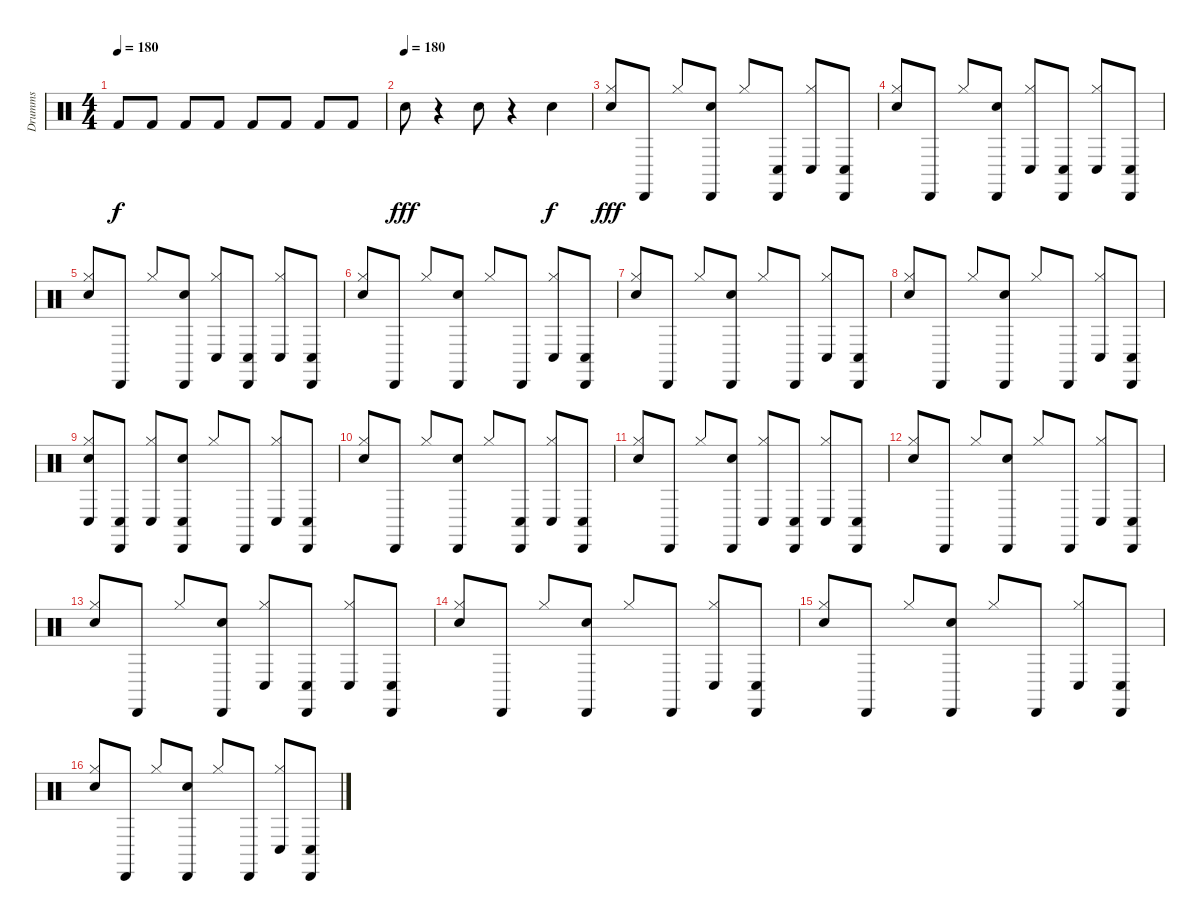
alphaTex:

\track ("Drumms" "Drumms") {instrument percussion}
\staff {score}
\articulation defaults
\ts (4 4)
\tempo 180
\clef neutral
\ks c "Kick (hit) 2".8{dy f} "Kick (hit) 2".8 "Kick (hit) 2".8 "Kick (hit) 2".8 "Kick (hit) 2".8 "Kick (hit) 2".8 "Kick (hit) 2".8 "Kick (hit) 2".8
|
\tempo (180)
"Metronome (bell)".8{dy fff} r.4 "Metronome (bell)".8 r.4 "Metronome (bell)".4{dy f} |
("Hi-Hat (closed)" "Metronome (bell)").8{dy fff} "Cabasa (hit)".8 "Hi-Hat (closed)".8 ("Cabasa (hit)" "Metronome (bell)").8 "Hi-Hat (closed)".8 ("Cabasa (hit)" "Conga low (hit)").8 ("Hi-Hat (closed)" "Conga low (hit)").8 ("Cabasa (hit)" "Conga low (hit)").8 |
("Hi-Hat (closed)" "Metronome (bell)").8 "Cabasa (hit)".8 "Hi-Hat (closed)".8 ("Cabasa (hit)" "Metronome (bell)").8 ("Hi-Hat (closed)" "Conga low (hit)").8 ("Cabasa (hit)" "Conga low (hit)").8 ("Hi-Hat (closed)" "Conga low (hit)").8 ("Cabasa (hit)" "Conga low (hit)").8 |
("Hi-Hat (closed)" "Metronome (bell)").8 "Cabasa (hit)".8 "Hi-Hat (closed)".8 ("Cabasa (hit)" "Metronome (bell)").8 ("Hi-Hat (closed)" "Conga low (hit)").8 ("Cabasa (hit)" "Conga low (hit)").8 ("Hi-Hat (closed)" "Conga low (hit)").8 ("Cabasa (hit)" "Conga low (hit)").8 |
("Hi-Hat (closed)" "Metronome (bell)").8 "Cabasa (hit)".8 "Hi-Hat (closed)".8 ("Cabasa (hit)" "Metronome (bell)").8 "Hi-Hat (closed)".8 "Cabasa (hit)".8 ("Hi-Hat (closed)" "Conga low (hit)").8 ("Cabasa (hit)" "Conga low (hit)").8 |
("Hi-Hat (closed)" "Metronome (bell)").8 "Cabasa (hit)".8 "Hi-Hat (closed)".8 ("Cabasa (hit)" "Metronome (bell)").8 "Hi-Hat (closed)".8 "Cabasa (hit)".8 ("Hi-Hat (closed)" "Conga low (hit)").8 ("Cabasa (hit)" "Conga low (hit)").8 |
("Hi-Hat (closed)" "Metronome (bell)").8 "Cabasa (hit)".8 "Hi-Hat (closed)".8 ("Cabasa (hit)" "Metronome (bell)").8 "Hi-Hat (closed)".8 "Cabasa (hit)".8 ("Hi-Hat (closed)" "Conga low (hit)").8 ("Cabasa (hit)" "Conga low (hit)").8 |
("Hi-Hat (closed)" "Metronome (bell)" "Conga low (hit)").8 ("Cabasa (hit)" "Conga low (hit)").8 ("Hi-Hat (closed)" "Conga low (hit)").8 ("Cabasa (hit)" "Metronome (bell)" "Conga low (hit)").8 "Hi-Hat (closed)".8 "Cabasa (hit)".8 ("Hi-Hat (closed)" "Conga low (hit)").8 ("Cabasa (hit)" "Conga low (hit)").8 |
("Hi-Hat (closed)" "Metronome (bell)").8 "Cabasa (hit)".8 "Hi-Hat (closed)".8 ("Cabasa (hit)" "Metronome (bell)").8 "Hi-Hat (closed)".8 ("Cabasa (hit)" "Conga low (hit)").8 ("Hi-Hat (closed)" "Conga low (hit)").8 ("Cabasa (hit)" "Conga low (hit)").8 |
("Hi-Hat (closed)" "Metronome (bell)").8 "Cabasa (hit)".8 "Hi-Hat (closed)".8 ("Cabasa (hit)" "Metronome (bell)").8 ("Hi-Hat (closed)" "Conga low (hit)").8 ("Cabasa (hit)" "Conga low (hit)").8 ("Hi-Hat (closed)" "Conga low (hit)").8 ("Cabasa (hit)" "Conga low (hit)").8 |
("Hi-Hat (closed)" "Metronome (bell)").8 "Cabasa (hit)".8 "Hi-Hat (closed)".8 ("Cabasa (hit)" "Metronome (bell)").8 "Hi-Hat (closed)".8 "Cabasa (hit)".8 ("Hi-Hat (closed)" "Conga low (hit)").8 ("Cabasa (hit)" "Conga low (hit)").8 |
("Hi-Hat (closed)" "Metronome (bell)").8 "Cabasa (hit)".8 "Hi-Hat (closed)".8 ("Cabasa (hit)" "Metronome (bell)").8 ("Hi-Hat (closed)" "Conga low (hit)").8 ("Cabasa (hit)" "Conga low (hit)").8 ("Hi-Hat (closed)" "Conga low (hit)").8 ("Cabasa (hit)" "Conga low (hit)").8 |
("Hi-Hat (closed)" "Metronome (bell)").8 "Cabasa (hit)".8 "Hi-Hat (closed)".8 ("Cabasa (hit)" "Metronome (bell)").8 "Hi-Hat (closed)".8 "Cabasa (hit)".8 ("Hi-Hat (closed)" "Conga low (hit)").8 ("Cabasa (hit)" "Conga low (hit)").8 |
("Hi-Hat (closed)" "Metronome (bell)").8 "Cabasa (hit)".8 "Hi-Hat (closed)".8 ("Cabasa (hit)" "Metronome (bell)").8 "Hi-Hat (closed)".8 "Cabasa (hit)".8 ("Hi-Hat (closed)" "Conga low (hit)").8 ("Cabasa (hit)" "Conga low (hit)").8 |
("Hi-Hat (closed)" "Metronome (bell)").8 "Cabasa (hit)".8 "Hi-Hat (closed)".8 ("Cabasa (hit)" "Metronome (bell)").8 "Hi-Hat (closed)".8 "Cabasa (hit)".8 ("Hi-Hat (closed)" "Conga low (hit)").8 ("Cabasa (hit)" "Conga low (hit)").8
